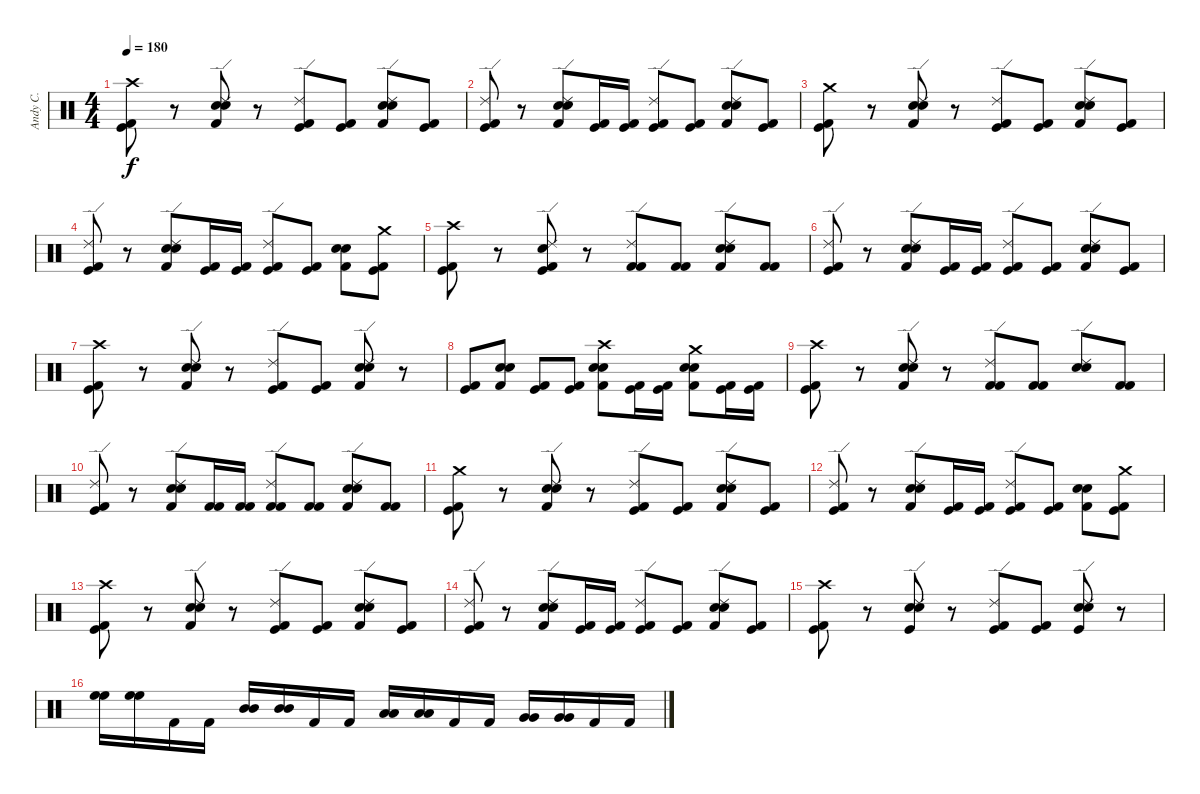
\track ("Andy C." "Andy C.") {instrument percussion}
\staff {score}
\articulation defaults
\ts (4 4)
\tempo 180
\clef neutral
\ks c
("Crash high (hit)" "Kick (hit)" "Kick (hit) 2").8{dy f} r.8 ("Ride (edge) 2" "Kick (hit) 2" "Snare (hit) 2" "Electric Snare (hit)").8 r.8 ("Ride (edge) 2" "Kick (hit)" "Kick (hit) 2").8 ("Kick (hit)" "Kick (hit) 2").8 ("Ride (edge) 2" "Kick (hit) 2" "Snare (hit) 2" "Electric Snare (hit)").8 ("Kick (hit)" "Kick (hit) 2").8 |
("Ride (edge) 2" "Kick (hit)" "Kick (hit) 2").8 r.8 ("Ride (edge) 2" "Kick (hit) 2" "Snare (hit) 2" "Electric Snare (hit)").8 ("Kick (hit)" "Kick (hit) 2").16 ("Kick (hit)" "Kick (hit) 2").16 ("Ride (edge) 2" "Kick (hit)" "Kick (hit) 2").8 ("Kick (hit)" "Kick (hit) 2").8 ("Ride (edge) 2" "Snare (hit) 2" "Kick (hit) 2" "Electric Snare (hit)").8 ("Kick (hit)" "Kick (hit) 2").8 |
("Crash medium (hit)" "Kick (hit)" "Kick (hit) 2").8 r.8 ("Ride (edge) 2" "Kick (hit) 2" "Snare (hit) 2" "Electric Snare (hit)").8 r.8 ("Ride (edge) 2" "Kick (hit)" "Kick (hit) 2").8 ("Kick (hit)" "Kick (hit) 2").8 ("Ride (edge) 2" "Kick (hit) 2" "Snare (hit) 2" "Electric Snare (hit)").8 ("Kick (hit)" "Kick (hit) 2").8 |
("Ride (edge) 2" "Kick (hit)" "Kick (hit) 2").8 r.8 ("Ride (edge) 2" "Kick (hit) 2" "Snare (hit) 2" "Electric Snare (hit)").8 ("Kick (hit)" "Kick (hit) 2").16 ("Kick (hit)" "Kick (hit) 2").16 ("Ride (edge) 2" "Kick (hit)" "Kick (hit) 2").8 ("Kick (hit)" "Kick (hit) 2").8 ("Kick (hit) 2" "Snare (hit) 2" "Electric Snare (hit)").8 ("Crash medium (hit)" "Kick (hit)" "Kick (hit) 2").8 |
("Crash high (hit)" "Kick (hit)" "Kick (hit) 2").8 r.8 ("Ride (edge) 2" "Kick (hit) 2" "Kick (hit)" "Electric Snare (hit)").8 r.8 ("Ride (edge) 2" "Kick (hit) 2" "Kick (hit) 2").8 ("Kick (hit) 2" "Kick (hit) 2").8 ("Ride (edge) 2" "Kick (hit) 2" "Snare (hit) 2" "Electric Snare (hit)").8 ("Kick (hit) 2" "Kick (hit) 2").8 |
("Ride (edge) 2" "Kick (hit)" "Kick (hit) 2").8 r.8 ("Ride (edge) 2" "Snare (hit) 2" "Kick (hit) 2" "Electric Snare (hit)").8 ("Kick (hit)" "Kick (hit) 2").16 ("Kick (hit)" "Kick (hit) 2").16 ("Ride (edge) 2" "Kick (hit)" "Kick (hit) 2").8 ("Kick (hit)" "Kick (hit) 2").8 ("Ride (edge) 2" "Kick (hit) 2" "Snare (hit) 2" "Electric Snare (hit)").8 ("Kick (hit)" "Kick (hit) 2").8 |
("Crash high (hit)" "Kick (hit)" "Kick (hit) 2").8 r.8 ("Ride (edge) 2" "Kick (hit) 2" "Snare (hit) 2" "Electric Snare (hit)").8 r.8 ("Ride (edge) 2" "Kick (hit)" "Kick (hit) 2").8 ("Kick (hit)" "Kick (hit) 2").8 ("Ride (edge) 2" "Kick (hit) 2" "Snare (hit) 2" "Electric Snare (hit)").8 r.8 |
("Kick (hit)" "Kick (hit) 2").8 ("Kick (hit) 2" "Snare (hit) 2" "Electric Snare (hit)").8 ("Kick (hit)" "Kick (hit) 2").8 ("Kick (hit)" "Kick (hit) 2").8 ("Crash high (hit)" "Kick (hit) 2" "Snare (hit) 2" "Electric Snare (hit)").8 ("Kick (hit)" "Kick (hit) 2").16 ("Kick (hit)" "Kick (hit) 2").16 ("Crash medium (hit)" "Kick (hit) 2" "Snare (hit) 2" "Electric Snare (hit)").8 ("Kick (hit)" "Kick (hit) 2").16 ("Kick (hit)" "Kick (hit) 2").16 |
("Crash high (hit)" "Kick (hit)" "Kick (hit) 2").8 r.8 ("Ride (edge) 2" "Kick (hit) 2" "Snare (hit) 2" "Electric Snare (hit)").8 r.8 ("Ride (edge) 2" "Kick (hit) 2" "Kick (hit) 2").8 ("Kick (hit) 2" "Kick (hit) 2").8 ("Ride (edge) 2" "Snare (hit) 2" "Electric Snare (hit)").8 ("Kick (hit) 2" "Kick (hit) 2").8 |
("Ride (edge) 2" "Kick (hit)" "Kick (hit) 2").8 r.8 ("Ride (edge) 2" "Kick (hit) 2" "Snare (hit) 2" "Electric Snare (hit)").8 ("Kick (hit) 2" "Kick (hit) 2").16 ("Kick (hit) 2" "Kick (hit) 2").16 ("Ride (edge) 2" "Kick (hit) 2" "Kick (hit) 2").8 ("Kick (hit) 2" "Kick (hit) 2").8 ("Ride (edge) 2" "Kick (hit) 2" "Snare (hit) 2" "Electric Snare (hit)").8 ("Kick (hit) 2" "Kick (hit) 2").8 |
("Crash medium (hit)" "Kick (hit)" "Kick (hit) 2").8 r.8 ("Ride (edge) 2" "Kick (hit) 2" "Snare (hit) 2" "Electric Snare (hit)").8 r.8 ("Ride (edge) 2" "Kick (hit)" "Kick (hit) 2").8 ("Kick (hit)" "Kick (hit) 2").8 ("Ride (edge) 2" "Kick (hit) 2" "Snare (hit) 2" "Electric Snare (hit)").8 ("Kick (hit)" "Kick (hit) 2").8 |
("Ride (edge) 2" "Kick (hit)" "Kick (hit) 2").8 r.8 ("Ride (edge) 2" "Kick (hit) 2" "Snare (hit) 2" "Electric Snare (hit)").8 ("Kick (hit)" "Kick (hit) 2").16 ("Kick (hit)" "Kick (hit) 2").16 ("Ride (edge) 2" "Kick (hit)" "Kick (hit) 2").8 ("Kick (hit)" "Kick (hit) 2").8 ("Kick (hit) 2" "Snare (hit) 2" "Electric Snare (hit)").8 ("Crash medium (hit)" "Kick (hit)" "Kick (hit) 2").8 |
("Crash high (hit)" "Kick (hit)" "Kick (hit) 2").8 r.8 ("Ride (edge) 2" "Kick (hit) 2" "Snare (hit) 2" "Electric Snare (hit)").8 r.8 ("Ride (edge) 2" "Kick (hit)" "Kick (hit) 2").8 ("Kick (hit)" "Kick (hit) 2").8 ("Ride (edge) 2" "Kick (hit) 2" "Snare (hit) 2" "Electric Snare (hit)").8 ("Kick (hit)" "Kick (hit) 2").8 |
("Ride (edge) 2" "Kick (hit)" "Kick (hit) 2").8 r.8 ("Ride (edge) 2" "Kick (hit) 2" "Snare (hit) 2" "Electric Snare (hit)").8 ("Kick (hit)" "Kick (hit) 2").16 ("Kick (hit)" "Kick (hit) 2").16 ("Ride (edge) 2" "Kick (hit)" "Kick (hit) 2").8 ("Kick (hit)" "Kick (hit) 2").8 ("Ride (edge) 2" "Kick (hit) 2" "Snare (hit) 2" "Electric Snare (hit)").8 ("Kick (hit)" "Kick (hit) 2").8 |
("Crash high (hit)" "Kick (hit)" "Kick (hit) 2").8 r.8 ("Ride (edge) 2" "Kick (hit)" "Snare (hit) 2" "Electric Snare (hit)").8 r.8 ("Ride (edge) 2" "Kick (hit)" "Kick (hit) 2").8 ("Kick (hit)" "Kick (hit) 2").8 ("Ride (edge) 2" "Kick (hit)" "Snare (hit) 2" "Electric Snare (hit)").8 r.8 |
("High Floor Tom (hit)" "High Floor Tom (hit)").16 ("High Floor Tom (hit)" "High Floor Tom (hit)").16 "Kick (hit) 2".16 "Kick (hit) 2".16 ("Mid Tom (hit)" "Mid Tom (hit)").16 ("Mid Tom (hit)" "Mid Tom (hit)").16 "Kick (hit) 2".16 "Kick (hit) 2".16 ("Low Tom (hit)" "Low Tom (hit)").16 ("Low Tom (hit)" "Low Tom (hit)").16 "Kick (hit) 2".16 "Kick (hit) 2".16 ("Very Low Tom (hit)" "Very Low Tom (hit)").16 ("Very Low Tom (hit)" "Very Low Tom (hit)").16 "Kick (hit) 2".16 "Kick (hit) 2".16
